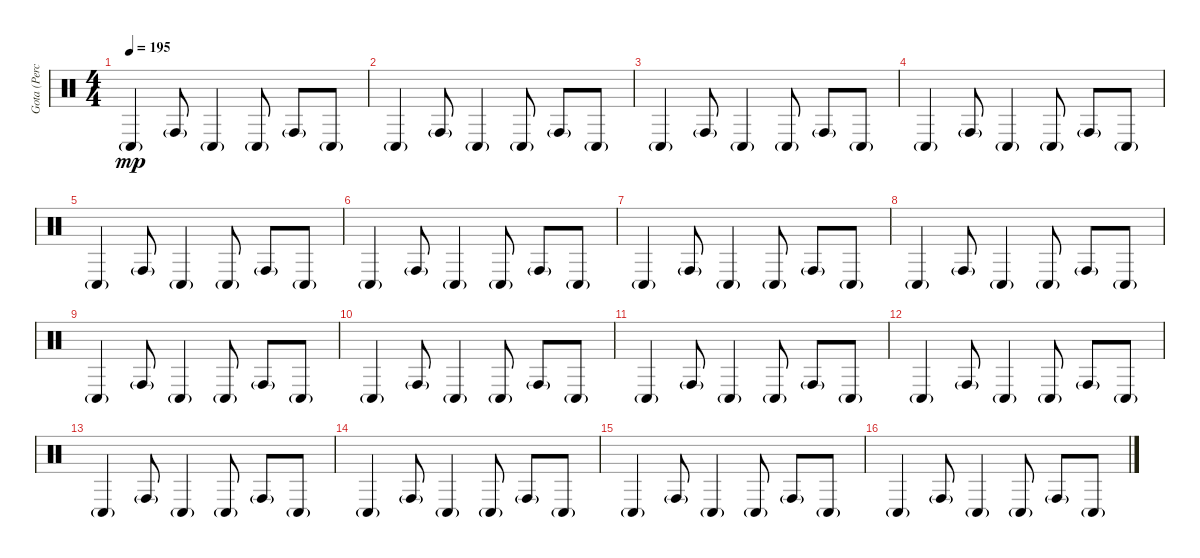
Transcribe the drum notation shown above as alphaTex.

\track ("Gota (Percussion)" "Gota (Perc") {instrument percussion}
\staff {score}
\articulation defaults
\ts (4 4)
\tempo 195
\clef neutral
\ks c "Conga low (hit)"{g}.4{dy mp} "Conga high (hit)"{g}.8 "Conga low (hit)"{g}.4 "Conga low (hit)"{g}.8 "Conga high (hit)"{g}.8 "Conga low (hit)"{g}.8
|
"Conga low (hit)"{g}.4 "Conga high (hit)"{g}.8 "Conga low (hit)"{g}.4 "Conga low (hit)"{g}.8 "Conga high (hit)"{g}.8 "Conga low (hit)"{g}.8 |
"Conga low (hit)"{g}.4 "Conga high (hit)"{g}.8 "Conga low (hit)"{g}.4 "Conga low (hit)"{g}.8 "Conga high (hit)"{g}.8 "Conga low (hit)"{g}.8 |
"Conga low (hit)"{g}.4 "Conga high (hit)"{g}.8 "Conga low (hit)"{g}.4 "Conga low (hit)"{g}.8 "Conga high (hit)"{g}.8 "Conga low (hit)"{g}.8 |
"Conga low (hit)"{g}.4 "Conga high (hit)"{g}.8 "Conga low (hit)"{g}.4 "Conga low (hit)"{g}.8 "Conga high (hit)"{g}.8 "Conga low (hit)"{g}.8 |
"Conga low (hit)"{g}.4 "Conga high (hit)"{g}.8 "Conga low (hit)"{g}.4 "Conga low (hit)"{g}.8 "Conga high (hit)"{g}.8 "Conga low (hit)"{g}.8 |
"Conga low (hit)"{g}.4 "Conga high (hit)"{g}.8 "Conga low (hit)"{g}.4 "Conga low (hit)"{g}.8 "Conga high (hit)"{g}.8 "Conga low (hit)"{g}.8 |
"Conga low (hit)"{g}.4 "Conga high (hit)"{g}.8 "Conga low (hit)"{g}.4 "Conga low (hit)"{g}.8 "Conga high (hit)"{g}.8 "Conga low (hit)"{g}.8 |
"Conga low (hit)"{g}.4 "Conga high (hit)"{g}.8 "Conga low (hit)"{g}.4 "Conga low (hit)"{g}.8 "Conga high (hit)"{g}.8 "Conga low (hit)"{g}.8 |
"Conga low (hit)"{g}.4 "Conga high (hit)"{g}.8 "Conga low (hit)"{g}.4 "Conga low (hit)"{g}.8 "Conga high (hit)"{g}.8 "Conga low (hit)"{g}.8 |
"Conga low (hit)"{g}.4 "Conga high (hit)"{g}.8 "Conga low (hit)"{g}.4 "Conga low (hit)"{g}.8 "Conga high (hit)"{g}.8 "Conga low (hit)"{g}.8 |
"Conga low (hit)"{g}.4 "Conga high (hit)"{g}.8 "Conga low (hit)"{g}.4 "Conga low (hit)"{g}.8 "Conga high (hit)"{g}.8 "Conga low (hit)"{g}.8 |
"Conga low (hit)"{g}.4 "Conga high (hit)"{g}.8 "Conga low (hit)"{g}.4 "Conga low (hit)"{g}.8 "Conga high (hit)"{g}.8 "Conga low (hit)"{g}.8 |
"Conga low (hit)"{g}.4 "Conga high (hit)"{g}.8 "Conga low (hit)"{g}.4 "Conga low (hit)"{g}.8 "Conga high (hit)"{g}.8 "Conga low (hit)"{g}.8 |
"Conga low (hit)"{g}.4 "Conga high (hit)"{g}.8 "Conga low (hit)"{g}.4 "Conga low (hit)"{g}.8 "Conga high (hit)"{g}.8 "Conga low (hit)"{g}.8 |
"Conga low (hit)"{g}.4 "Conga high (hit)"{g}.8 "Conga low (hit)"{g}.4 "Conga low (hit)"{g}.8 "Conga high (hit)"{g}.8 "Conga low (hit)"{g}.8
